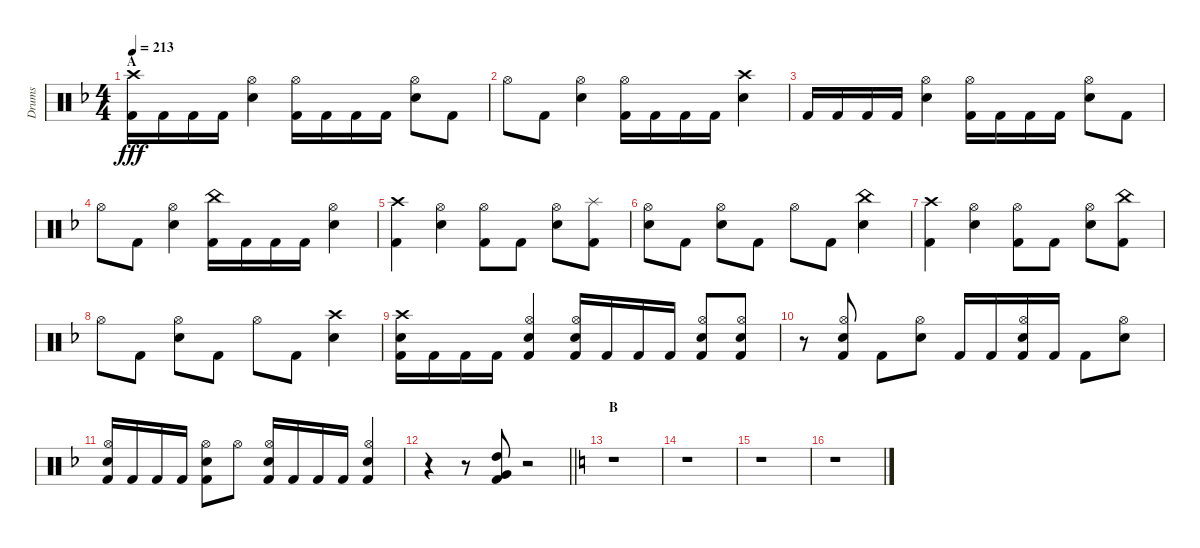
\track ("Drums" "Drums") {instrument percussion}
\staff {score}
\articulation defaults
\ts (4 4)
\section ("" "A")
\tempo 213
\clef neutral
\ks f
("Crash high (hit)" "Kick (hit) 2").16{dy fff} "Kick (hit) 2".16 "Kick (hit) 2".16 "Kick (hit) 2".16 ("Hi-Hat (open)" "Snare (hit) 2").4 ("Hi-Hat (open)" "Kick (hit) 2").16 "Kick (hit) 2".16 "Kick (hit) 2".16 "Kick (hit) 2".16 ("Hi-Hat (open)" "Snare (hit) 2").8 "Kick (hit) 2".8 |
"Hi-Hat (open)".8 "Kick (hit) 2".8 ("Hi-Hat (open)" "Snare (hit) 2").4 ("Hi-Hat (open)" "Kick (hit) 2").16 "Kick (hit) 2".16 "Kick (hit) 2".16 "Kick (hit) 2".16 ("Crash high (hit)" "Snare (hit) 2").4 |
"Kick (hit) 2".16 "Kick (hit) 2".16 "Kick (hit) 2".16 "Kick (hit) 2".16 ("Hi-Hat (open)" "Snare (hit) 2").4 ("Hi-Hat (open)" "Kick (hit) 2").16 "Kick (hit) 2".16 "Kick (hit) 2".16 "Kick (hit) 2".16 ("Hi-Hat (open)" "Snare (hit) 2").8 "Kick (hit) 2".8 |
"Hi-Hat (open)".8 "Kick (hit) 2".8 ("Hi-Hat (open)" "Snare (hit) 2").4 ("China (hit)" "Kick (hit) 2").16 "Kick (hit) 2".16 "Kick (hit) 2".16 "Kick (hit) 2".16 ("Hi-Hat (open)" "Snare (hit) 2").4 |
("Crash high (hit)" "Kick (hit) 2").4 ("Hi-Hat (open)" "Snare (hit) 2").4 ("Hi-Hat (open)" "Kick (hit) 2").8 "Kick (hit) 2".8 ("Hi-Hat (open)" "Snare (hit) 2").8 ("Splash (hit)" "Kick (hit) 2").8 |
("Hi-Hat (open)" "Snare (hit) 2").8 "Kick (hit) 2".8 ("Hi-Hat (open)" "Snare (hit) 2").8 "Kick (hit) 2".8 "Hi-Hat (open)".8 "Kick (hit) 2".8 ("China (hit)" "Snare (hit) 2").4 |
("Crash high (hit)" "Kick (hit) 2").4 ("Hi-Hat (open)" "Snare (hit) 2").4 ("Hi-Hat (open)" "Kick (hit) 2").8 "Kick (hit) 2".8 ("Hi-Hat (open)" "Snare (hit) 2").8 ("China (hit)" "Kick (hit) 2").8 |
"Hi-Hat (open)".8 "Kick (hit) 2".8 ("Hi-Hat (open)" "Snare (hit) 2").8 "Kick (hit) 2".8 "Hi-Hat (open)".8 "Kick (hit) 2".8 ("Crash high (hit)" "Snare (hit) 2").4 |
("Crash high (hit)" "Snare (hit) 2" "Kick (hit) 2").16 "Kick (hit) 2".16 "Kick (hit) 2".16 "Kick (hit) 2".16 ("Hi-Hat (open)" "Snare (hit) 2" "Kick (hit) 2").4 ("Hi-Hat (open)" "Snare (hit) 2" "Kick (hit) 2").16 "Kick (hit) 2".16 "Kick (hit) 2".16 "Kick (hit) 2".16 ("Hi-Hat (open)" "Snare (hit) 2" "Kick (hit) 2").8 ("Hi-Hat (open)" "Snare (hit) 2" "Kick (hit) 2").8 |
r.8 ("Hi-Hat (open)" "Snare (hit) 2" "Kick (hit) 2").8 "Kick (hit) 2".8 ("Hi-Hat (open)" "Snare (hit) 2").8 "Kick (hit) 2".16 "Kick (hit) 2".16 ("Hi-Hat (open)" "Snare (hit) 2" "Kick (hit) 2").16 "Kick (hit) 2".16 "Kick (hit) 2".8 ("Hi-Hat (open)" "Snare (hit) 2").8 |
("Hi-Hat (open)" "Snare (hit) 2" "Kick (hit) 2").16 "Kick (hit) 2".16 "Kick (hit) 2".16 "Kick (hit) 2".16 ("Hi-Hat (open)" "Snare (hit) 2" "Kick (hit) 2").8 "Hi-Hat (open)".8 ("Hi-Hat (open)" "Snare (hit) 2" "Kick (hit) 2").16 "Kick (hit) 2".16 "Kick (hit) 2".16 "Kick (hit) 2".16 ("Hi-Hat (open)" "Snare (hit) 2" "Kick (hit) 2").4 |
\barLineRight lightlight
r.4 r.8 ("High Tom (hit)" "Very Low Tom (hit)" "Kick (hit) 2").8 r.2 |
\section ("" "B")
\ks c
r.1 |
r.1 |
r.1 |
r.1
